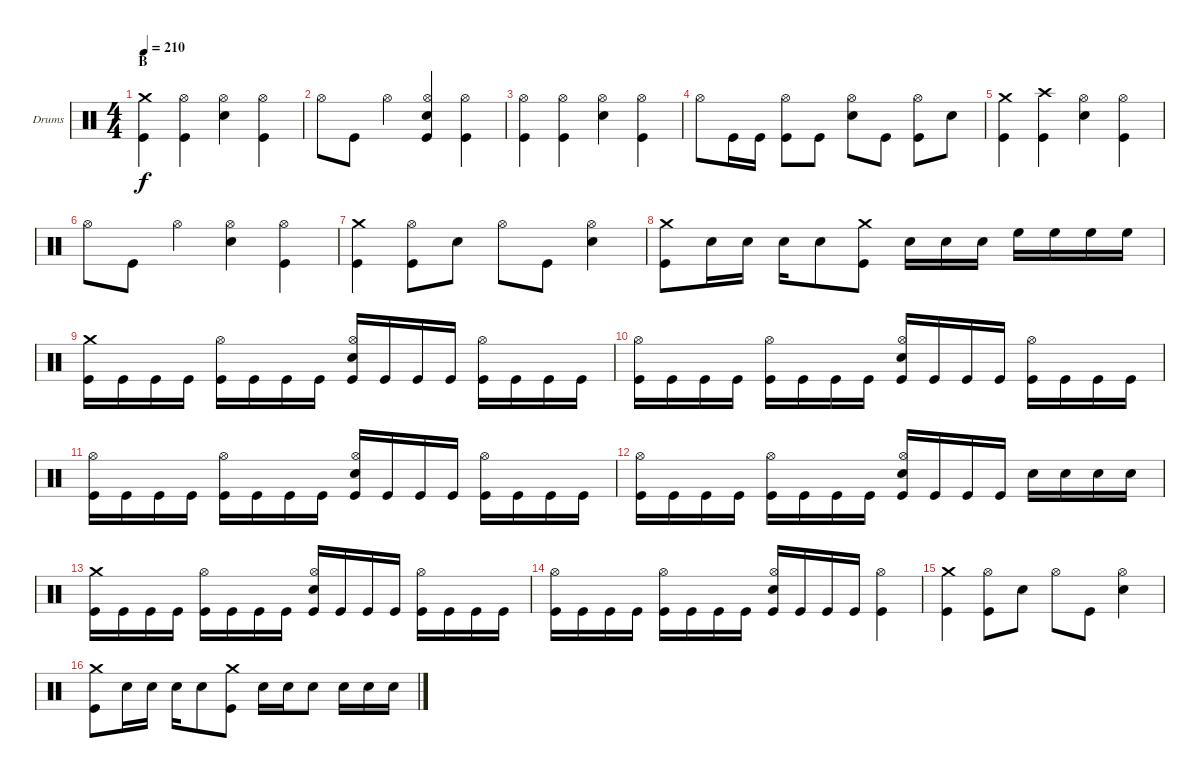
\bracketExtendMode groupsimilarinstruments
\firstSystemTrackNameOrientation horizontal
\otherSystemsTrackNameOrientation horizontal
\track ("Drumkit" "Drums") {instrument percussion}
\staff {score}
\articulation defaults
\ts (4 4)
\section ("" "B")
\tempo 210
\clef neutral
\ks c
("Crash medium (hit)" "Kick (hit)").4{dy f} ("Hi-Hat (open)" "Kick (hit)").4 ("Hi-Hat (open)" "Snare (hit) 2").4 ("Hi-Hat (open)" "Kick (hit)").4 |
"Hi-Hat (open)".8 "Kick (hit)".8 "Hi-Hat (open)".4 ("Hi-Hat (open)" "Snare (hit) 2" "Kick (hit)").4 ("Hi-Hat (open)" "Kick (hit)").4 |
("Hi-Hat (open)" "Kick (hit)").4 ("Hi-Hat (open)" "Kick (hit)").4 ("Hi-Hat (open)" "Snare (hit) 2").4 ("Hi-Hat (open)" "Kick (hit)").4 |
"Hi-Hat (open)".8 "Kick (hit)".16 "Kick (hit)".16 ("Hi-Hat (open)" "Kick (hit)").8 "Kick (hit)".8 ("Hi-Hat (open)" "Snare (hit) 2").8 "Kick (hit)".8 ("Hi-Hat (open)" "Kick (hit)").8 "Snare (hit) 2".8 |
("Crash medium (hit)" "Kick (hit)").4 ("Crash high (hit)" "Kick (hit)").4 ("Hi-Hat (open)" "Snare (hit) 2").4 ("Hi-Hat (open)" "Kick (hit)").4 |
"Hi-Hat (open)".8 "Kick (hit)".8 "Hi-Hat (open)".4 ("Hi-Hat (open)" "Snare (hit) 2").4 ("Hi-Hat (open)" "Kick (hit)").4 |
("Crash medium (hit)" "Kick (hit)").4 ("Hi-Hat (open)" "Kick (hit)").8 "Snare (hit) 2".8 "Hi-Hat (open)".8 "Kick (hit)".8 ("Hi-Hat (open)" "Snare (hit) 2").4 |
("Crash medium (hit)" "Kick (hit)").8 "Snare (hit) 2".16 "Snare (hit) 2".16 "Snare (hit) 2".16 "Snare (hit) 2".8 ("Crash medium (hit)" "Kick (hit)").8 "Snare (hit) 2".16 "Snare (hit) 2".16 "Snare (hit) 2".16 "High Floor Tom (hit)".16 "High Floor Tom (hit)".16 "High Floor Tom (hit)".16 "High Floor Tom (hit)".16 |
("Crash medium (hit)" "Kick (hit)").16 "Kick (hit)".16 "Kick (hit)".16 "Kick (hit)".16 ("Hi-Hat (open)" "Kick (hit)").16 "Kick (hit)".16 "Kick (hit)".16 "Kick (hit)".16 ("Hi-Hat (open)" "Snare (hit) 2" "Kick (hit)").16 "Kick (hit)".16 "Kick (hit)".16 "Kick (hit)".16 ("Hi-Hat (open)" "Kick (hit)").16 "Kick (hit)".16 "Kick (hit)".16 "Kick (hit)".16 |
("Hi-Hat (open)" "Kick (hit)").16 "Kick (hit)".16 "Kick (hit)".16 "Kick (hit)".16 ("Hi-Hat (open)" "Kick (hit)").16 "Kick (hit)".16 "Kick (hit)".16 "Kick (hit)".16 ("Hi-Hat (open)" "Snare (hit) 2" "Kick (hit)").16 "Kick (hit)".16 "Kick (hit)".16 "Kick (hit)".16 ("Hi-Hat (open)" "Kick (hit)").16 "Kick (hit)".16 "Kick (hit)".16 "Kick (hit)".16 |
("Hi-Hat (open)" "Kick (hit)").16 "Kick (hit)".16 "Kick (hit)".16 "Kick (hit)".16 ("Hi-Hat (open)" "Kick (hit)").16 "Kick (hit)".16 "Kick (hit)".16 "Kick (hit)".16 ("Hi-Hat (open)" "Snare (hit) 2" "Kick (hit)").16 "Kick (hit)".16 "Kick (hit)".16 "Kick (hit)".16 ("Hi-Hat (open)" "Kick (hit)").16 "Kick (hit)".16 "Kick (hit)".16 "Kick (hit)".16 |
("Hi-Hat (open)" "Kick (hit)").16 "Kick (hit)".16 "Kick (hit)".16 "Kick (hit)".16 ("Hi-Hat (open)" "Kick (hit)").16 "Kick (hit)".16 "Kick (hit)".16 "Kick (hit)".16 ("Hi-Hat (open)" "Snare (hit) 2" "Kick (hit)").16 "Kick (hit)".16 "Kick (hit)".16 "Kick (hit)".16 "Snare (hit) 2".16 "Snare (hit) 2".16 "Snare (hit) 2".16 "Snare (hit) 2".16 |
("Crash medium (hit)" "Kick (hit)").16 "Kick (hit)".16 "Kick (hit)".16 "Kick (hit)".16 ("Hi-Hat (open)" "Kick (hit)").16 "Kick (hit)".16 "Kick (hit)".16 "Kick (hit)".16 ("Hi-Hat (open)" "Snare (hit) 2" "Kick (hit)").16 "Kick (hit)".16 "Kick (hit)".16 "Kick (hit)".16 ("Hi-Hat (open)" "Kick (hit)").16 "Kick (hit)".16 "Kick (hit)".16 "Kick (hit)".16 |
("Hi-Hat (open)" "Kick (hit)").16 "Kick (hit)".16 "Kick (hit)".16 "Kick (hit)".16 ("Hi-Hat (open)" "Kick (hit)").16 "Kick (hit)".16 "Kick (hit)".16 "Kick (hit)".16 ("Hi-Hat (open)" "Snare (hit) 2" "Kick (hit)").16 "Kick (hit)".16 "Kick (hit)".16 "Kick (hit)".16 ("Hi-Hat (open)" "Kick (hit)").4 |
("Crash medium (hit)" "Kick (hit)").4 ("Hi-Hat (open)" "Kick (hit)").8 "Snare (hit) 2".8 "Hi-Hat (open)".8 "Kick (hit)".8 ("Hi-Hat (open)" "Snare (hit) 2").4 |
("Crash medium (hit)" "Kick (hit)").8 "Snare (hit) 2".16 "Snare (hit) 2".16 "Snare (hit) 2".16 "Snare (hit) 2".8 ("Crash medium (hit)" "Kick (hit)").8 "Snare (hit) 2".16 "Snare (hit) 2".16 "Snare (hit) 2".8 "Snare (hit) 2".16 "Snare (hit) 2".16 "Snare (hit) 2".16
